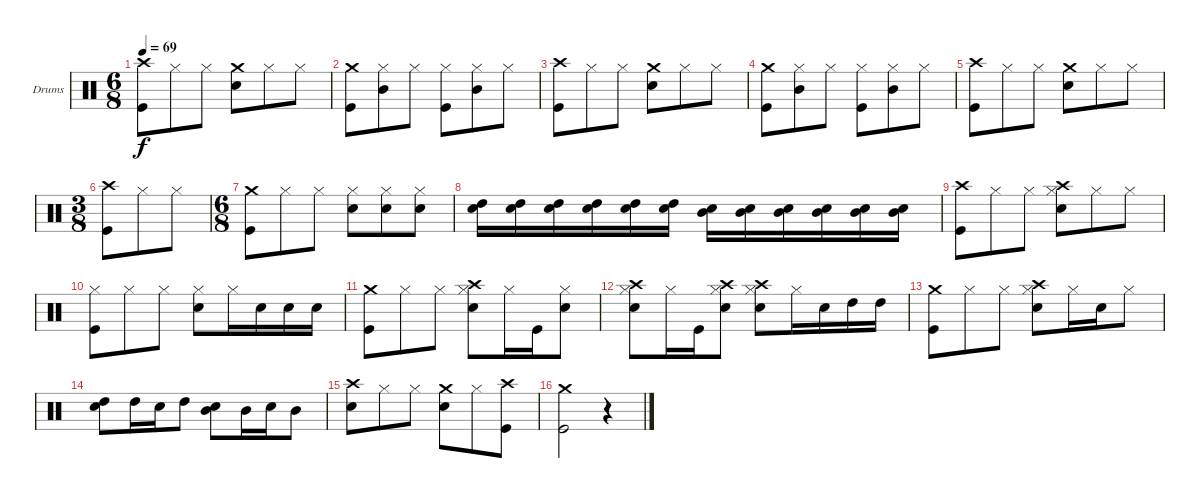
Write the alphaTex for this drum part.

\defaultSystemsLayout 4
\bracketExtendMode groupsimilarinstruments
\firstSystemTrackNameOrientation horizontal
\otherSystemsTrackNameOrientation horizontal
\track ("Удар" "Drums") {instrument percussion}
\staff {score}
\articulation defaults
\ts (6 8)
\tempo 69
\clef neutral
\ks c
("Crash high (hit)" "Kick (hit)").8{dy f} "Hi-Hat (closed)".8 "Hi-Hat (closed)".8 ("Crash medium (hit)" "Snare (hit) 2").8 "Hi-Hat (closed)".8 "Hi-Hat (closed)".8 |
("Crash medium (hit)" "Kick (hit)").8 ("Hi-Hat (closed)" "Mid Tom (hit)").8 "Hi-Hat (closed)".8 ("Hi-Hat (closed)" "Kick (hit)").8 ("Hi-Hat (closed)" "Mid Tom (hit)").8 "Hi-Hat (closed)".8 |
("Crash high (hit)" "Kick (hit)").8 "Hi-Hat (closed)".8 "Hi-Hat (closed)".8 ("Crash medium (hit)" "Snare (hit) 2").8 "Hi-Hat (closed)".8 "Hi-Hat (closed)".8 |
("Crash medium (hit)" "Kick (hit)").8 ("Hi-Hat (closed)" "Mid Tom (hit)").8 "Hi-Hat (closed)".8 ("Hi-Hat (closed)" "Kick (hit)").8 ("Hi-Hat (closed)" "Mid Tom (hit)").8 "Hi-Hat (closed)".8 |
("Crash high (hit)" "Kick (hit)").8 "Hi-Hat (closed)".8 "Hi-Hat (closed)".8 ("Crash medium (hit)" "Snare (hit) 2").8 "Hi-Hat (closed)".8 "Hi-Hat (closed)".8 |
\ts (3 8)
("Crash high (hit)" "Kick (hit)").8 "Hi-Hat (closed)".8 "Hi-Hat (closed)".8 |
\ts (6 8)
("Crash medium (hit)" "Kick (hit)").8 "Hi-Hat (closed)".8 "Hi-Hat (closed)".8 ("Hi-Hat (closed)" "Snare (hit) 2").8 ("Hi-Hat (closed)" "Snare (hit) 2").8 ("Hi-Hat (closed)" "Snare (hit) 2").8 |
("High Tom (hit)" "Snare (hit) 2").16 ("High Tom (hit)" "Snare (hit) 2").16 ("High Tom (hit)" "Snare (hit) 2").16 ("High Tom (hit)" "Snare (hit) 2").16 ("High Tom (hit)" "Snare (hit) 2").16 ("High Tom (hit)" "Snare (hit) 2").16 ("Mid Tom (hit)" "Snare (hit) 2").16 ("Mid Tom (hit)" "Snare (hit) 2").16 ("Mid Tom (hit)" "Snare (hit) 2").16 ("Mid Tom (hit)" "Snare (hit) 2").16 ("Mid Tom (hit)" "Snare (hit) 2").16 ("Mid Tom (hit)" "Snare (hit) 2").16 |
("Crash high (hit)" "Kick (hit)").8 "Hi-Hat (closed)".8 "Hi-Hat (closed)".8 ("Hi-Hat (closed)" "Snare (hit) 2" "Crash high (hit)").8 "Hi-Hat (closed)".8 "Hi-Hat (closed)".8 |
("Hi-Hat (closed)" "Kick (hit)").8 "Hi-Hat (closed)".8 "Hi-Hat (closed)".8 ("Hi-Hat (closed)" "Snare (hit) 2").8 "Hi-Hat (closed)".16 "Snare (hit) 2".16 "Snare (hit) 2".16 "Snare (hit) 2".16 |
("Crash medium (hit)" "Kick (hit)").8 "Hi-Hat (closed)".8 "Hi-Hat (closed)".8 ("Hi-Hat (closed)" "Snare (hit) 2" "Crash high (hit)").8 "Hi-Hat (closed)".16 "Kick (hit)".16 ("Hi-Hat (closed)" "Snare (hit) 2").8 |
("Hi-Hat (closed)" "Snare (hit) 2" "Crash high (hit)").8 "Hi-Hat (closed)".16 "Kick (hit)".16 ("Hi-Hat (closed)" "Snare (hit) 2" "Crash high (hit)").8 ("Hi-Hat (closed)" "Snare (hit) 2" "Crash high (hit)").8 "Hi-Hat (closed)".16 "Snare (hit) 2".16 "High Tom (hit)".16 "High Tom (hit)".16 |
("Crash medium (hit)" "Kick (hit)").8 "Hi-Hat (closed)".8 "Hi-Hat (closed)".8 ("Hi-Hat (closed)" "Snare (hit) 2" "Crash high (hit)").8 "Hi-Hat (closed)".16 "Snare (hit) 2".16 "Hi-Hat (closed)".8 |
("Snare (hit) 2" "High Tom (hit)").8 "High Tom (hit)".16 "Snare (hit) 2".16 "High Tom (hit)".8 ("Snare (hit) 2" "Mid Tom (hit)").8 "Mid Tom (hit)".16 "Snare (hit) 2".16 "Mid Tom (hit)".8 |
("Crash high (hit)" "Snare (hit) 2").8 "Hi-Hat (closed)".8 "Hi-Hat (closed)".8 ("Crash medium (hit)" "Snare (hit) 2").8 "Hi-Hat (closed)".8 ("Crash high (hit)" "Kick (hit)").8 |
("Crash medium (hit)" "Kick (hit)").2 r.4
